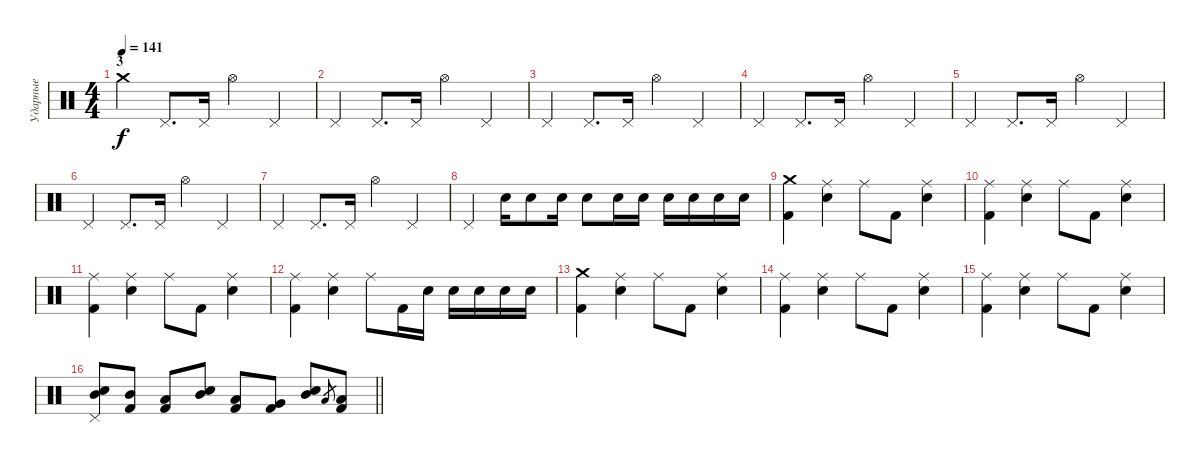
\track ("Ударные" "Ударные") {instrument percussion}
\staff {score}
\articulation defaults
\ts (4 4)
\section ("" "3")
\tempo 141
\clef neutral
\ks c "Crash medium (hit)".4{dy f} "Pedal Hi-Hat (hit)".8{d} "Pedal Hi-Hat (hit)".16 "Hi-Hat (open)".4 "Pedal Hi-Hat (hit)".4
|
"Pedal Hi-Hat (hit)".4 "Pedal Hi-Hat (hit)".8{d} "Pedal Hi-Hat (hit)".16 "Hi-Hat (open)".4 "Pedal Hi-Hat (hit)".4 |
"Pedal Hi-Hat (hit)".4 "Pedal Hi-Hat (hit)".8{d} "Pedal Hi-Hat (hit)".16 "Hi-Hat (open)".4 "Pedal Hi-Hat (hit)".4 |
"Pedal Hi-Hat (hit)".4 "Pedal Hi-Hat (hit)".8{d} "Pedal Hi-Hat (hit)".16 "Hi-Hat (open)".4 "Pedal Hi-Hat (hit)".4 |
"Pedal Hi-Hat (hit)".4 "Pedal Hi-Hat (hit)".8{d} "Pedal Hi-Hat (hit)".16 "Hi-Hat (open)".4 "Pedal Hi-Hat (hit)".4 |
"Pedal Hi-Hat (hit)".4 "Pedal Hi-Hat (hit)".8{d} "Pedal Hi-Hat (hit)".16 "Hi-Hat (open)".4 "Pedal Hi-Hat (hit)".4 |
"Pedal Hi-Hat (hit)".4 "Pedal Hi-Hat (hit)".8{d} "Pedal Hi-Hat (hit)".16 "Hi-Hat (open)".4 "Pedal Hi-Hat (hit)".4 |
"Pedal Hi-Hat (hit)".4 "Snare (hit) 2".16 "Snare (hit) 2".8 "Snare (hit) 2".16 "Snare (hit) 2".8 "Snare (hit) 2".16 "Snare (hit) 2".16 "Snare (hit) 2".16 "Snare (hit) 2".16 "Snare (hit) 2".16 "Snare (hit) 2".16 |
("Crash medium (hit)" "Kick (hit) 2").4 ("Ride (middle)" "Snare (hit) 2").4 "Ride (middle)".8 "Kick (hit) 2".8 ("Ride (middle)" "Snare (hit) 2").4 |
("Ride (middle)" "Kick (hit) 2").4 ("Ride (middle)" "Snare (hit) 2").4 "Ride (middle)".8 "Kick (hit) 2".8 ("Ride (middle)" "Snare (hit) 2").4 |
("Ride (middle)" "Kick (hit) 2").4 ("Ride (middle)" "Snare (hit) 2").4 "Ride (middle)".8 "Kick (hit) 2".8 ("Ride (middle)" "Snare (hit) 2").4 |
("Ride (middle)" "Kick (hit) 2").4 ("Ride (middle)" "Snare (hit) 2").4 "Ride (middle)".8 "Kick (hit) 2".16 "Snare (hit) 2".16 "Snare (hit) 2".16 "Snare (hit) 2".16 "Snare (hit) 2".16 "Snare (hit) 2".16 |
("Crash medium (hit)" "Kick (hit) 2").4 ("Ride (middle)" "Snare (hit) 2").4 "Ride (middle)".8 "Kick (hit) 2".8 ("Ride (middle)" "Snare (hit) 2").4 |
("Ride (middle)" "Kick (hit) 2").4 ("Ride (middle)" "Snare (hit) 2").4 "Ride (middle)".8 "Kick (hit) 2".8 ("Ride (middle)" "Snare (hit) 2").4 |
("Ride (middle)" "Kick (hit) 2").4 ("Ride (middle)" "Snare (hit) 2").4 "Ride (middle)".8 "Kick (hit) 2".8 ("Ride (middle)" "Snare (hit) 2").4 |
\barLineRight lightlight
("Pedal Hi-Hat (hit)" "Snare (hit) 2" "Mid Tom (hit)").8 ("Mid Tom (hit)" "Kick (hit) 2").8 ("Low Tom (hit)" "Kick (hit) 2").8 ("Snare (hit) 2" "Mid Tom (hit)").8 ("Low Tom (hit)" "Kick (hit) 2").8 ("Very Low Tom (hit)" "Kick (hit) 2").8 ("Snare (hit) 2" "Mid Tom (hit)").8 "Low Floor Tom (hit)".8{gr} ("Low Floor Tom (hit)" "Kick (hit) 2").8
